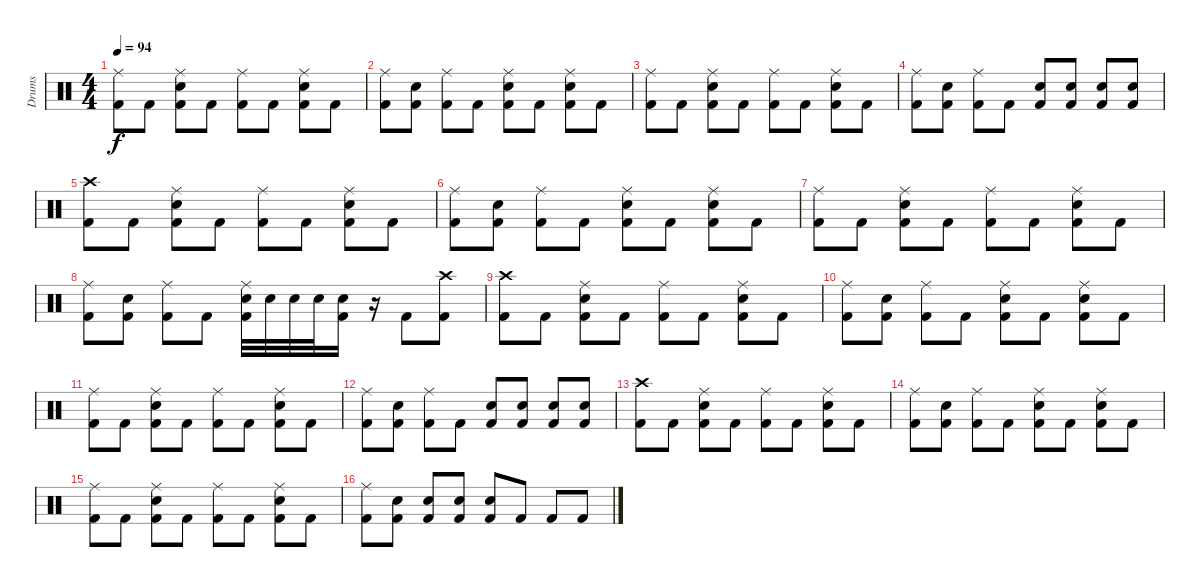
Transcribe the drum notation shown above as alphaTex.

\track ("Drums" "Drums") {instrument percussion}
\staff {score}
\articulation defaults
\ts (4 4)
\tempo 94
\clef neutral
\ks c
("Ride (middle)" "Kick (hit) 2").8{dy f} "Kick (hit) 2".8 ("Ride (middle)" "Snare (hit) 2" "Kick (hit) 2").8 "Kick (hit) 2".8 ("Ride (middle)" "Kick (hit) 2").8 "Kick (hit) 2".8 ("Ride (middle)" "Snare (hit) 2" "Kick (hit) 2").8 "Kick (hit) 2".8 |
("Ride (middle)" "Kick (hit) 2").8 ("Snare (hit) 2" "Kick (hit) 2").8 ("Ride (middle)" "Kick (hit) 2").8 "Kick (hit) 2".8 ("Ride (middle)" "Snare (hit) 2" "Kick (hit) 2").8 "Kick (hit) 2".8 ("Ride (middle)" "Snare (hit) 2" "Kick (hit) 2").8 "Kick (hit) 2".8 |
("Ride (middle)" "Kick (hit) 2").8 "Kick (hit) 2".8 ("Ride (middle)" "Snare (hit) 2" "Kick (hit) 2").8 "Kick (hit) 2".8 ("Ride (middle)" "Kick (hit) 2").8 "Kick (hit) 2".8 ("Ride (middle)" "Snare (hit) 2" "Kick (hit) 2").8 "Kick (hit) 2".8 |
("Ride (middle)" "Kick (hit) 2").8 ("Snare (hit) 2" "Kick (hit) 2").8 ("Ride (middle)" "Kick (hit) 2").8 "Kick (hit) 2".8 ("Snare (hit) 2" "Kick (hit) 2").8 ("Snare (hit) 2" "Kick (hit) 2").8 ("Snare (hit) 2" "Kick (hit) 2").8 ("Snare (hit) 2" "Kick (hit) 2").8 |
("Crash high (hit)" "Kick (hit) 2").8 "Kick (hit) 2".8 ("Ride (middle)" "Snare (hit) 2" "Kick (hit) 2").8 "Kick (hit) 2".8 ("Ride (middle)" "Kick (hit) 2").8 "Kick (hit) 2".8 ("Ride (middle)" "Snare (hit) 2" "Kick (hit) 2").8 "Kick (hit) 2".8 |
("Ride (middle)" "Kick (hit) 2").8 ("Snare (hit) 2" "Kick (hit) 2").8 ("Ride (middle)" "Kick (hit) 2").8 "Kick (hit) 2".8 ("Ride (middle)" "Snare (hit) 2" "Kick (hit) 2").8 "Kick (hit) 2".8 ("Ride (middle)" "Snare (hit) 2" "Kick (hit) 2").8 "Kick (hit) 2".8 |
("Ride (middle)" "Kick (hit) 2").8 "Kick (hit) 2".8 ("Ride (middle)" "Snare (hit) 2" "Kick (hit) 2").8 "Kick (hit) 2".8 ("Ride (middle)" "Kick (hit) 2").8 "Kick (hit) 2".8 ("Ride (middle)" "Snare (hit) 2" "Kick (hit) 2").8 "Kick (hit) 2".8 |
("Ride (middle)" "Kick (hit) 2").8 ("Snare (hit) 2" "Kick (hit) 2").8 ("Ride (middle)" "Kick (hit) 2").8 "Kick (hit) 2".8 ("Ride (middle)" "Snare (hit) 2" "Kick (hit) 2").32 "Snare (hit) 2".32 "Snare (hit) 2".32 "Snare (hit) 2".32 ("Snare (hit) 2" "Kick (hit) 2").16 r.16 "Kick (hit) 2".8 ("Crash high (hit)" "Kick (hit) 2").8 |
("Crash high (hit)" "Kick (hit) 2").8 "Kick (hit) 2".8 ("Ride (middle)" "Snare (hit) 2" "Kick (hit) 2").8 "Kick (hit) 2".8 ("Ride (middle)" "Kick (hit) 2").8 "Kick (hit) 2".8 ("Ride (middle)" "Snare (hit) 2" "Kick (hit) 2").8 "Kick (hit) 2".8 |
("Ride (middle)" "Kick (hit) 2").8 ("Snare (hit) 2" "Kick (hit) 2").8 ("Ride (middle)" "Kick (hit) 2").8 "Kick (hit) 2".8 ("Ride (middle)" "Snare (hit) 2" "Kick (hit) 2").8 "Kick (hit) 2".8 ("Ride (middle)" "Snare (hit) 2" "Kick (hit) 2").8 "Kick (hit) 2".8 |
("Ride (middle)" "Kick (hit) 2").8 "Kick (hit) 2".8 ("Ride (middle)" "Snare (hit) 2" "Kick (hit) 2").8 "Kick (hit) 2".8 ("Ride (middle)" "Kick (hit) 2").8 "Kick (hit) 2".8 ("Ride (middle)" "Snare (hit) 2" "Kick (hit) 2").8 "Kick (hit) 2".8 |
("Ride (middle)" "Kick (hit) 2").8 ("Snare (hit) 2" "Kick (hit) 2").8 ("Ride (middle)" "Kick (hit) 2").8 "Kick (hit) 2".8 ("Snare (hit) 2" "Kick (hit) 2").8 ("Snare (hit) 2" "Kick (hit) 2").8 ("Snare (hit) 2" "Kick (hit) 2").8 ("Snare (hit) 2" "Kick (hit) 2").8 |
("Crash high (hit)" "Kick (hit) 2").8 "Kick (hit) 2".8 ("Ride (middle)" "Snare (hit) 2" "Kick (hit) 2").8 "Kick (hit) 2".8 ("Ride (middle)" "Kick (hit) 2").8 "Kick (hit) 2".8 ("Ride (middle)" "Snare (hit) 2" "Kick (hit) 2").8 "Kick (hit) 2".8 |
("Ride (middle)" "Kick (hit) 2").8 ("Snare (hit) 2" "Kick (hit) 2").8 ("Ride (middle)" "Kick (hit) 2").8 "Kick (hit) 2".8 ("Ride (middle)" "Snare (hit) 2" "Kick (hit) 2").8 "Kick (hit) 2".8 ("Ride (middle)" "Snare (hit) 2" "Kick (hit) 2").8 "Kick (hit) 2".8 |
("Ride (middle)" "Kick (hit) 2").8 "Kick (hit) 2".8 ("Ride (middle)" "Snare (hit) 2" "Kick (hit) 2").8 "Kick (hit) 2".8 ("Ride (middle)" "Kick (hit) 2").8 "Kick (hit) 2".8 ("Ride (middle)" "Snare (hit) 2" "Kick (hit) 2").8 "Kick (hit) 2".8 |
("Ride (middle)" "Kick (hit) 2").8 ("Snare (hit) 2" "Kick (hit) 2").8 ("Snare (hit) 2" "Kick (hit) 2").8 ("Snare (hit) 2" "Kick (hit) 2").8 ("Snare (hit) 2" "Kick (hit) 2").8 "Kick (hit) 2".8 "Kick (hit) 2".8 "Kick (hit) 2".8
